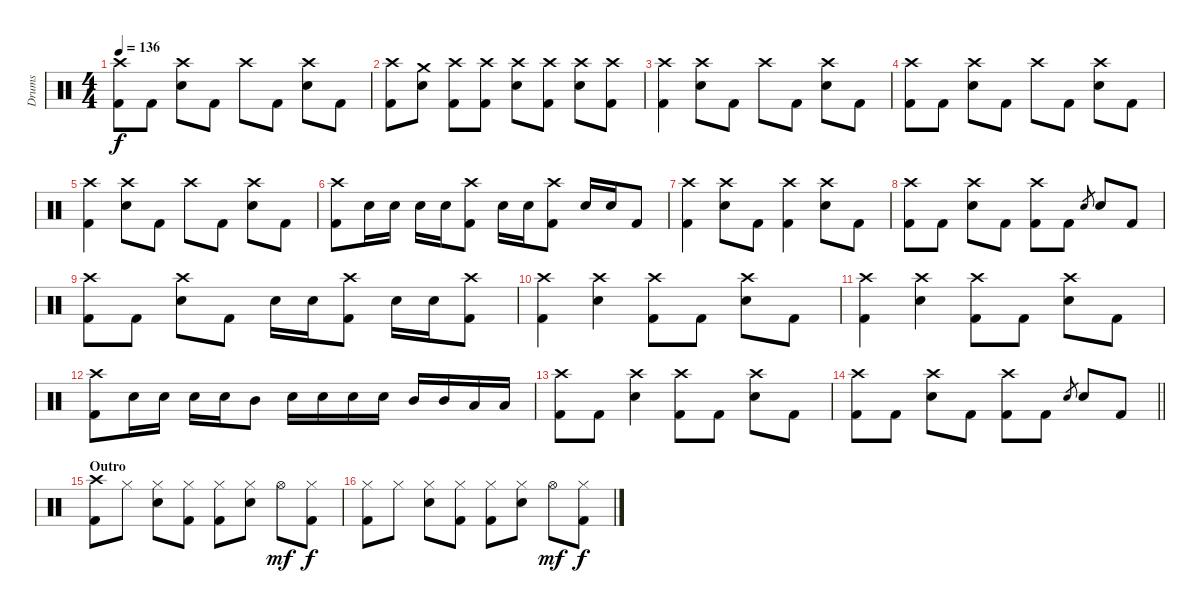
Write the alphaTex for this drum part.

\track ("Drums" "Drums") {instrument percussion}
\staff {score}
\articulation defaults
\ts (4 4)
\tempo 136
\clef neutral
\ks c
("Crash high (hit)" "Kick (hit) 2").8{dy f} "Kick (hit) 2".8 ("Crash high (hit)" "Electric Snare (hit)").8 "Kick (hit) 2".8 "Crash high (hit)".8 "Kick (hit) 2".8 ("Crash high (hit)" "Electric Snare (hit)").8 "Kick (hit) 2".8 |
("Crash high (hit)" "Kick (hit) 2").8 ("Crash medium (hit)" "Electric Snare (hit)").8 ("Crash high (hit)" "Kick (hit) 2").8 ("Crash high (hit)" "Kick (hit) 2").8 ("Crash high (hit)" "Electric Snare (hit)").8 ("Crash high (hit)" "Kick (hit) 2").8 ("Crash high (hit)" "Electric Snare (hit)").8 ("Crash high (hit)" "Kick (hit) 2").8 |
("Crash high (hit)" "Kick (hit) 2").4 ("Crash high (hit)" "Electric Snare (hit)").8 "Kick (hit) 2".8 "Crash high (hit)".8 "Kick (hit) 2".8 ("Crash high (hit)" "Electric Snare (hit)").8 "Kick (hit) 2".8 |
("Crash high (hit)" "Kick (hit) 2").8 "Kick (hit) 2".8 ("Crash high (hit)" "Electric Snare (hit)").8 "Kick (hit) 2".8 "Crash high (hit)".8 "Kick (hit) 2".8 ("Crash high (hit)" "Electric Snare (hit)").8 "Kick (hit) 2".8 |
("Crash high (hit)" "Kick (hit) 2").4 ("Crash high (hit)" "Electric Snare (hit)").8 "Kick (hit) 2".8 "Crash high (hit)".8 "Kick (hit) 2".8 ("Crash high (hit)" "Electric Snare (hit)").8 "Kick (hit) 2".8 |
("Crash high (hit)" "Kick (hit) 2").8 "Electric Snare (hit)".16 "Electric Snare (hit)".16 "Electric Snare (hit)".16 "Electric Snare (hit)".16 ("Crash high (hit)" "Kick (hit) 2").8 "Electric Snare (hit)".16 "Electric Snare (hit)".16 ("Crash high (hit)" "Kick (hit) 2").8 "Electric Snare (hit)".16 "Electric Snare (hit)".16 "Kick (hit) 2".8 |
("Crash high (hit)" "Kick (hit) 2").4 ("Crash high (hit)" "Electric Snare (hit)").8 "Kick (hit) 2".8 ("Crash high (hit)" "Kick (hit) 2").4 ("Crash high (hit)" "Electric Snare (hit)").8 "Kick (hit) 2".8 |
("Crash high (hit)" "Kick (hit) 2").8 "Kick (hit) 2".8 ("Crash high (hit)" "Electric Snare (hit)").8 "Kick (hit) 2".8 ("Crash high (hit)" "Kick (hit) 2").8 "Kick (hit) 2".8 "Electric Snare (hit)".8{gr} "Electric Snare (hit)".8 "Kick (hit) 2".8 |
("Crash high (hit)" "Kick (hit) 2").8 "Kick (hit) 2".8 ("Crash high (hit)" "Electric Snare (hit)").8 "Kick (hit) 2".8 "Electric Snare (hit)".16 "Electric Snare (hit)".16 ("Crash high (hit)" "Kick (hit) 2").8 "Electric Snare (hit)".16 "Electric Snare (hit)".16 ("Crash high (hit)" "Kick (hit) 2").8 |
("Crash high (hit)" "Kick (hit) 2").4 ("Crash high (hit)" "Electric Snare (hit)").4 ("Crash high (hit)" "Kick (hit) 2").8 "Kick (hit) 2".8 ("Crash high (hit)" "Electric Snare (hit)").8 "Kick (hit) 2".8 |
("Crash high (hit)" "Kick (hit) 2").4 ("Crash high (hit)" "Electric Snare (hit)").4 ("Crash high (hit)" "Kick (hit) 2").8 "Kick (hit) 2".8 ("Crash high (hit)" "Electric Snare (hit)").8 "Kick (hit) 2".8 |
("Crash high (hit)" "Kick (hit) 2").8 "Electric Snare (hit)".16 "Electric Snare (hit)".16 "Electric Snare (hit)".16 "Electric Snare (hit)".16 "Mid Tom (hit)".8 "Electric Snare (hit)".16 "Electric Snare (hit)".16 "Electric Snare (hit)".16 "Electric Snare (hit)".16 "Mid Tom (hit)".16 "Mid Tom (hit)".16 "Low Tom (hit)".16 "Low Tom (hit)".16 |
("Crash high (hit)" "Kick (hit) 2").8 "Kick (hit) 2".8 ("Crash high (hit)" "Electric Snare (hit)").4 ("Crash high (hit)" "Kick (hit) 2").8 "Kick (hit) 2".8 ("Crash high (hit)" "Electric Snare (hit)").8 "Kick (hit) 2".8 |
\barLineRight lightlight
("Crash high (hit)" "Kick (hit) 2").8 "Kick (hit) 2".8 ("Crash high (hit)" "Electric Snare (hit)").8 "Kick (hit) 2".8 ("Crash high (hit)" "Kick (hit) 2").8 "Kick (hit) 2".8 "Electric Snare (hit)".8{gr} "Electric Snare (hit)".8 "Kick (hit) 2".8 |
\section ("" "Outro")
("Crash high (hit)" "Kick (hit) 2").8 "Hi-Hat (closed)".8 ("Hi-Hat (closed)" "Electric Snare (hit)").8 ("Hi-Hat (closed)" "Kick (hit) 2").8 ("Hi-Hat (closed)" "Kick (hit) 2").8 ("Hi-Hat (closed)" "Electric Snare (hit)").8 "Hi-Hat (open)".8{dy mf} ("Hi-Hat (closed)" "Kick (hit) 2").8{dy f} |
("Hi-Hat (closed)" "Kick (hit) 2").8 "Hi-Hat (closed)".8 ("Hi-Hat (closed)" "Electric Snare (hit)").8 ("Hi-Hat (closed)" "Kick (hit) 2").8 ("Hi-Hat (closed)" "Kick (hit) 2").8 ("Hi-Hat (closed)" "Electric Snare (hit)").8 "Hi-Hat (open)".8{dy mf} ("Hi-Hat (closed)" "Kick (hit) 2").8{dy f}
